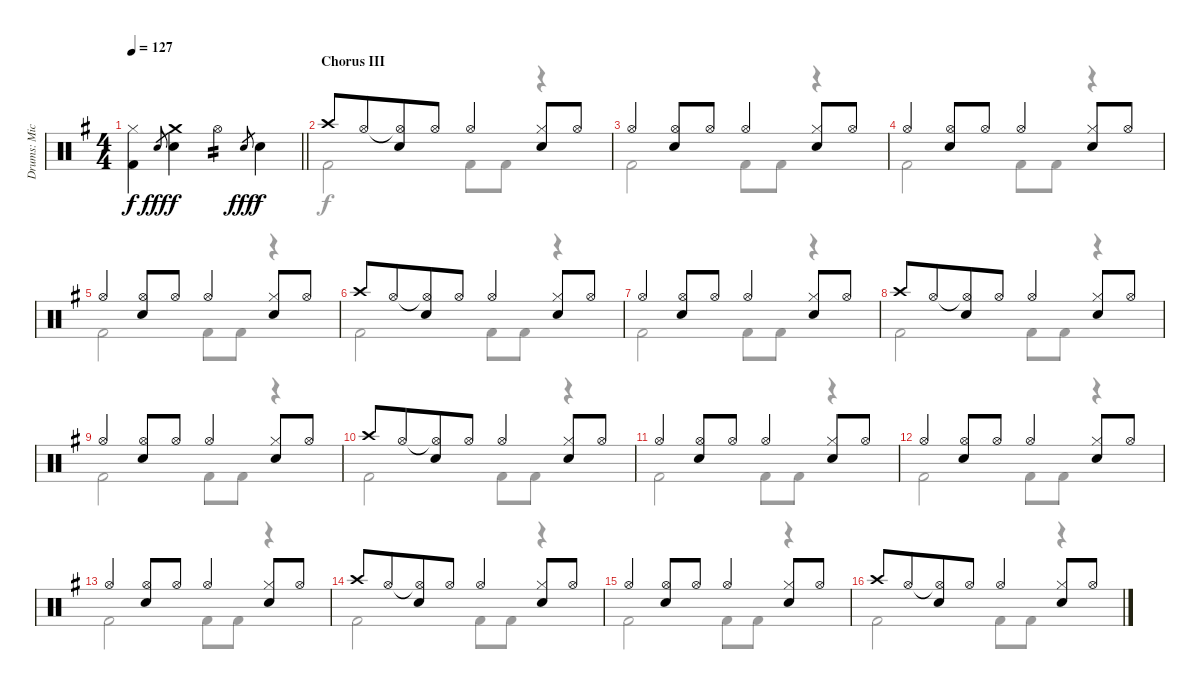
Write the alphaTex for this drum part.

\track ("Drums: Mick" "Drums: Mic") {instrument percussion}
\staff {score}
\articulation defaults
\voice
\ts (4 4)
\tempo 127
\clef neutral
\barLineRight lightlight
\ks g
("Hi-Hat (closed)" "Kick (hit) 2").4{dy f} "Electric Snare (hit)".8{gr dy fff beam merge} ("Crash medium (hit)" "Snare (hit) 2").4{dy f} "Hi-Hat (open)".4{tp 2} "Electric Snare (hit)".8{gr dy fff beam merge} "Snare (hit) 2".4{dy f} |
\section ("" "Chorus III")
"Crash high (hit)".8 "Hi-Hat (open)".8{beam merge} ("Hi-Hat (open)"{t} "Snare (hit) 2").8 "Hi-Hat (open)".8 "Hi-Hat (open)".4{beam merge} ("Hi-Hat (closed)" "Snare (hit) 2").8 "Hi-Hat (open)".8 |
"Hi-Hat (open)".4{beam merge} ("Hi-Hat (open)" "Snare (hit) 2").8 "Hi-Hat (open)".8 "Hi-Hat (open)".4{beam merge} ("Hi-Hat (closed)" "Snare (hit) 2").8 "Hi-Hat (open)".8 |
"Hi-Hat (open)".4{beam merge} ("Hi-Hat (open)" "Snare (hit) 2").8 "Hi-Hat (open)".8 "Hi-Hat (open)".4{beam merge} ("Hi-Hat (closed)" "Snare (hit) 2").8 "Hi-Hat (open)".8 |
"Hi-Hat (open)".4{beam merge} ("Hi-Hat (open)" "Snare (hit) 2").8 "Hi-Hat (open)".8 "Hi-Hat (open)".4{beam merge} ("Hi-Hat (closed)" "Snare (hit) 2").8 "Hi-Hat (open)".8 |
"Crash high (hit)".8 "Hi-Hat (open)".8{beam merge} ("Hi-Hat (open)"{t} "Snare (hit) 2").8 "Hi-Hat (open)".8 "Hi-Hat (open)".4{beam merge} ("Hi-Hat (closed)" "Snare (hit) 2").8 "Hi-Hat (open)".8 |
"Hi-Hat (open)".4{beam merge} ("Hi-Hat (open)" "Snare (hit) 2").8 "Hi-Hat (open)".8 "Hi-Hat (open)".4{beam merge} ("Hi-Hat (closed)" "Snare (hit) 2").8 "Hi-Hat (open)".8 |
"Crash high (hit)".8 "Hi-Hat (open)".8{beam merge} ("Hi-Hat (open)"{t} "Snare (hit) 2").8 "Hi-Hat (open)".8 "Hi-Hat (open)".4{beam merge} ("Hi-Hat (closed)" "Snare (hit) 2").8 "Hi-Hat (open)".8 |
"Hi-Hat (open)".4{beam merge} ("Hi-Hat (open)" "Snare (hit) 2").8 "Hi-Hat (open)".8 "Hi-Hat (open)".4{beam merge} ("Hi-Hat (closed)" "Snare (hit) 2").8 "Hi-Hat (open)".8 |
"Crash high (hit)".8 "Hi-Hat (open)".8{beam merge} ("Hi-Hat (open)"{t} "Snare (hit) 2").8 "Hi-Hat (open)".8 "Hi-Hat (open)".4{beam merge} ("Hi-Hat (closed)" "Snare (hit) 2").8 "Hi-Hat (open)".8 |
"Hi-Hat (open)".4{beam merge} ("Hi-Hat (open)" "Snare (hit) 2").8 "Hi-Hat (open)".8 "Hi-Hat (open)".4{beam merge} ("Hi-Hat (closed)" "Snare (hit) 2").8 "Hi-Hat (open)".8 |
"Hi-Hat (open)".4{beam merge} ("Hi-Hat (open)" "Snare (hit) 2").8 "Hi-Hat (open)".8 "Hi-Hat (open)".4{beam merge} ("Hi-Hat (closed)" "Snare (hit) 2").8 "Hi-Hat (open)".8 |
"Hi-Hat (open)".4{beam merge} ("Hi-Hat (open)" "Snare (hit) 2").8 "Hi-Hat (open)".8 "Hi-Hat (open)".4{beam merge} ("Hi-Hat (closed)" "Snare (hit) 2").8 "Hi-Hat (open)".8 |
"Crash high (hit)".8 "Hi-Hat (open)".8{beam merge} ("Hi-Hat (open)"{t} "Snare (hit) 2").8 "Hi-Hat (open)".8 "Hi-Hat (open)".4{beam merge} ("Hi-Hat (closed)" "Snare (hit) 2").8 "Hi-Hat (open)".8 |
"Hi-Hat (open)".4{beam merge} ("Hi-Hat (open)" "Snare (hit) 2").8 "Hi-Hat (open)".8 "Hi-Hat (open)".4{beam merge} ("Hi-Hat (closed)" "Snare (hit) 2").8 "Hi-Hat (open)".8 |
"Crash high (hit)".8 "Hi-Hat (open)".8{beam merge} ("Hi-Hat (open)"{t} "Snare (hit) 2").8 "Hi-Hat (open)".8 "Hi-Hat (open)".4{beam merge} ("Hi-Hat (closed)" "Snare (hit) 2").8 "Hi-Hat (open)".8
\voice
\clef neutral
\ottava regular
\simile none
\barLineRight lightlight
\ks g
|
"Kick (hit) 2".2 "Kick (hit) 2".8 "Kick (hit) 2".8 r.4 |
"Kick (hit) 2".2 "Kick (hit) 2".8 "Kick (hit) 2".8 r.4 |
"Kick (hit) 2".2 "Kick (hit) 2".8 "Kick (hit) 2".8 r.4 |
"Kick (hit) 2".2 "Kick (hit) 2".8 "Kick (hit) 2".8 r.4 |
"Kick (hit) 2".2 "Kick (hit) 2".8 "Kick (hit) 2".8 r.4 |
"Kick (hit) 2".2 "Kick (hit) 2".8 "Kick (hit) 2".8 r.4 |
"Kick (hit) 2".2 "Kick (hit) 2".8 "Kick (hit) 2".8 r.4 |
"Kick (hit) 2".2 "Kick (hit) 2".8 "Kick (hit) 2".8 r.4 |
"Kick (hit) 2".2 "Kick (hit) 2".8 "Kick (hit) 2".8 r.4 |
"Kick (hit) 2".2 "Kick (hit) 2".8 "Kick (hit) 2".8 r.4 |
"Kick (hit) 2".2 "Kick (hit) 2".8 "Kick (hit) 2".8 r.4 |
"Kick (hit) 2".2 "Kick (hit) 2".8 "Kick (hit) 2".8 r.4 |
"Kick (hit) 2".2 "Kick (hit) 2".8 "Kick (hit) 2".8 r.4 |
"Kick (hit) 2".2 "Kick (hit) 2".8 "Kick (hit) 2".8 r.4 |
"Kick (hit) 2".2 "Kick (hit) 2".8 "Kick (hit) 2".8 r.4
